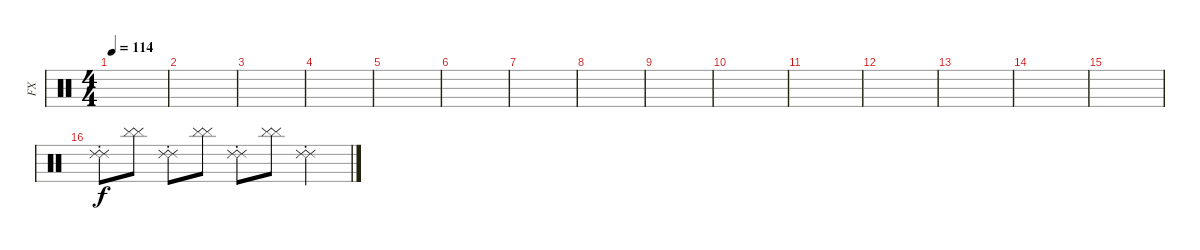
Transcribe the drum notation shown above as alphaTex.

\track ("FX" "FX") {instrument percussion}
\staff {score}
\articulation defaults
\ts (4 4)
\tempo 114
\clef neutral
\ks c
|
|
|
|
|
|
|
|
|
|
|
|
|
|
|
("Ride (choke) 2" "Ride (choke) 2").8 ("Cymbal (hit)" "Cymbal (hit)").8 ("Ride (choke) 2" "Ride (choke) 2").8 ("Cymbal (hit)" "Cymbal (hit)").8 ("Ride (choke) 2" "Ride (choke) 2").8 ("Cymbal (hit)" "Cymbal (hit)").8 ("Ride (choke) 2" "Ride (choke) 2").4
